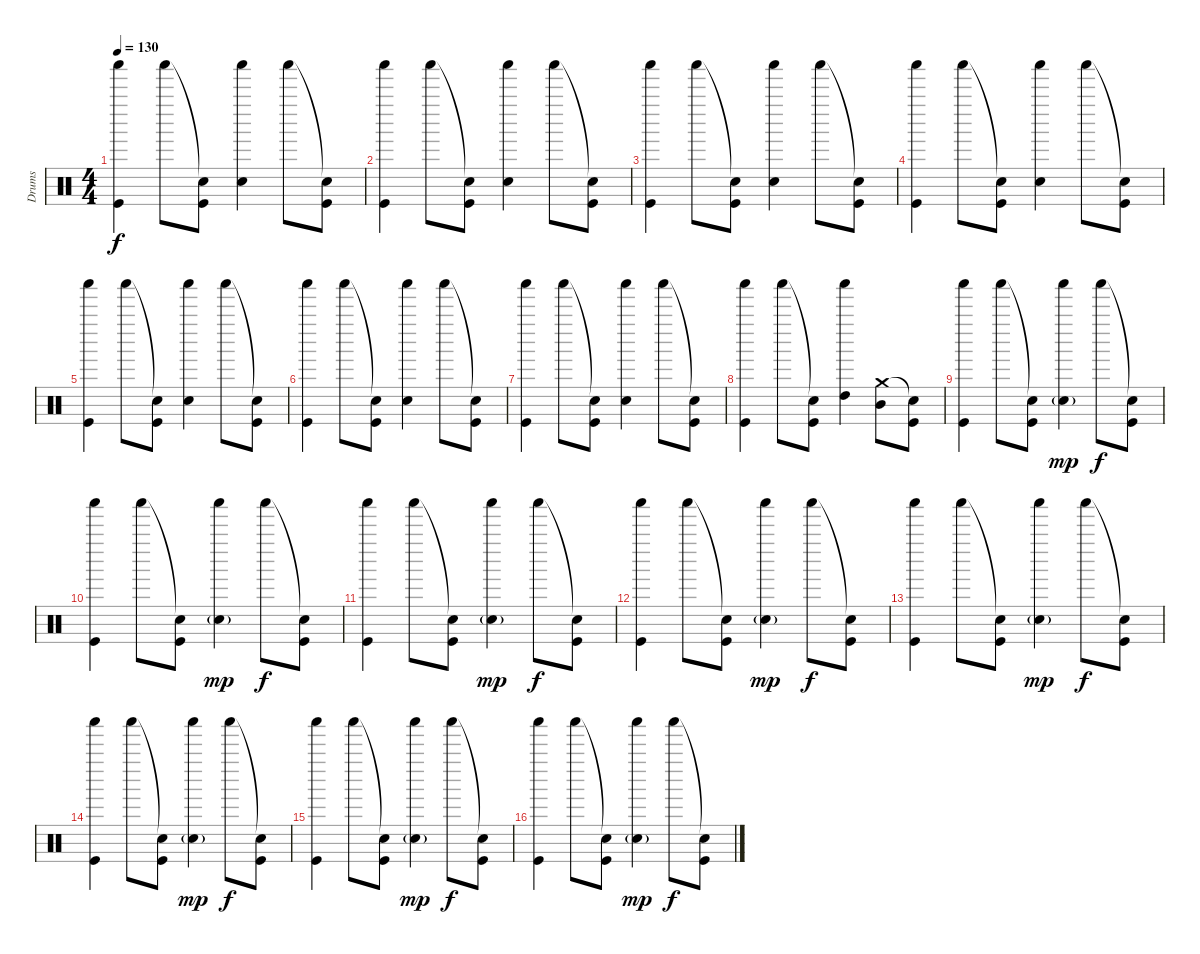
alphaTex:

\track ("Drums" "Drums") {instrument percussion}
\staff {score}
\articulation defaults
\ts (4 4)
\tempo 130
\clef neutral
\ks c
("Shaker (hit)" "Kick (hit)").4{dy f} "Shaker (hit)".8 ("Snare (hit)"{t} "Kick (hit)").8 ("Shaker (hit)" "Electric Snare (hit)").4 "Shaker (hit)".8 ("Snare (hit)"{t} "Kick (hit)").8 |
("Shaker (hit)" "Kick (hit)").4 "Shaker (hit)".8 ("Snare (hit)"{t} "Kick (hit)").8 ("Shaker (hit)" "Electric Snare (hit)").4 "Shaker (hit)".8 ("Snare (hit)"{t} "Kick (hit)").8 |
("Shaker (hit)" "Kick (hit)").4 "Shaker (hit)".8 ("Snare (hit)"{t} "Kick (hit)").8 ("Shaker (hit)" "Electric Snare (hit)").4 "Shaker (hit)".8 ("Snare (hit)"{t} "Kick (hit)").8 |
("Shaker (hit)" "Kick (hit)").4 "Shaker (hit)".8 ("Snare (hit)"{t} "Kick (hit)").8 ("Shaker (hit)" "Electric Snare (hit)").4 "Shaker (hit)".8 ("Snare (hit)"{t} "Kick (hit)").8 |
("Shaker (hit)" "Kick (hit)").4 "Shaker (hit)".8 ("Snare (hit)"{t} "Kick (hit)").8 ("Shaker (hit)" "Electric Snare (hit)").4 "Shaker (hit)".8 ("Snare (hit)"{t} "Kick (hit)").8 |
("Shaker (hit)" "Kick (hit)").4 "Shaker (hit)".8 ("Snare (hit)"{t} "Kick (hit)").8 ("Shaker (hit)" "Electric Snare (hit)").4 "Shaker (hit)".8 ("Snare (hit)"{t} "Kick (hit)").8 |
("Shaker (hit)" "Kick (hit)").4 "Shaker (hit)".8 ("Snare (hit)"{t} "Kick (hit)").8 ("Shaker (hit)" "Electric Snare (hit)").4 "Shaker (hit)".8 ("Snare (hit)"{t} "Kick (hit)").8 |
("Shaker (hit)" "Kick (hit)").4 "Shaker (hit)".8 ("Snare (hit)"{t} "Kick (hit)").8 ("Shaker (hit)" "High Tom (hit)").4 ("Crash medium (hit)" "Mid Tom (hit)").8 ("Snare (hit)"{t} "Kick (hit)").8 |
("Shaker (hit)" "Kick (hit)").4 "Shaker (hit)".8 ("Snare (hit)"{t} "Kick (hit)").8 ("Shaker (hit)" "Electric Snare (hit)"{g}).4{dy mp} "Shaker (hit)".8{dy f} ("Snare (hit)"{t} "Kick (hit)").8 |
("Shaker (hit)" "Kick (hit)").4 "Shaker (hit)".8 ("Snare (hit)"{t} "Kick (hit)").8 ("Shaker (hit)" "Electric Snare (hit)"{g}).4{dy mp} "Shaker (hit)".8{dy f} ("Snare (hit)"{t} "Kick (hit)").8 |
("Shaker (hit)" "Kick (hit)").4 "Shaker (hit)".8 ("Snare (hit)"{t} "Kick (hit)").8 ("Shaker (hit)" "Electric Snare (hit)"{g}).4{dy mp} "Shaker (hit)".8{dy f} ("Snare (hit)"{t} "Kick (hit)").8 |
("Shaker (hit)" "Kick (hit)").4 "Shaker (hit)".8 ("Snare (hit)"{t} "Kick (hit)").8 ("Shaker (hit)" "Electric Snare (hit)"{g}).4{dy mp} "Shaker (hit)".8{dy f} ("Snare (hit)"{t} "Kick (hit)").8 |
("Shaker (hit)" "Kick (hit)").4 "Shaker (hit)".8 ("Snare (hit)"{t} "Kick (hit)").8 ("Shaker (hit)" "Electric Snare (hit)"{g}).4{dy mp} "Shaker (hit)".8{dy f} ("Snare (hit)"{t} "Kick (hit)").8 |
("Shaker (hit)" "Kick (hit)").4 "Shaker (hit)".8 ("Snare (hit)"{t} "Kick (hit)").8 ("Shaker (hit)" "Electric Snare (hit)"{g}).4{dy mp} "Shaker (hit)".8{dy f} ("Snare (hit)"{t} "Kick (hit)").8 |
("Shaker (hit)" "Kick (hit)").4 "Shaker (hit)".8 ("Snare (hit)"{t} "Kick (hit)").8 ("Shaker (hit)" "Electric Snare (hit)"{g}).4{dy mp} "Shaker (hit)".8{dy f} ("Snare (hit)"{t} "Kick (hit)").8 |
("Shaker (hit)" "Kick (hit)").4 "Shaker (hit)".8 ("Snare (hit)"{t} "Kick (hit)").8 ("Shaker (hit)" "Electric Snare (hit)"{g}).4{dy mp} "Shaker (hit)".8{dy f} ("Snare (hit)"{t} "Kick (hit)").8
